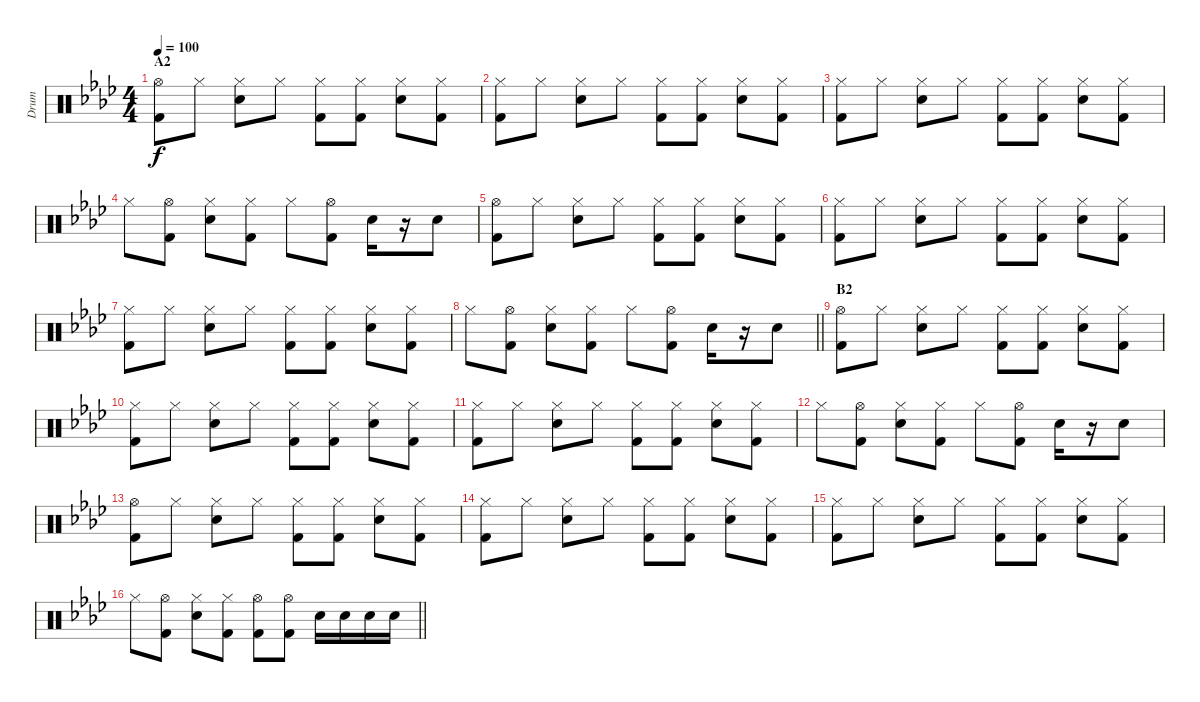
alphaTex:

\track ("Drum" "Drum") {instrument percussion}
\staff {score}
\articulation defaults
\ts (4 4)
\section ("" "A2")
\tempo 100
\clef neutral
\ks ab
("Hi-Hat (open)" "Kick (hit) 2").8{dy f} "Hi-Hat (closed)".8 ("Hi-Hat (closed)" "Snare (hit) 2").8 "Hi-Hat (closed)".8 ("Hi-Hat (closed)" "Kick (hit) 2").8 ("Hi-Hat (closed)" "Kick (hit) 2").8 ("Hi-Hat (closed)" "Snare (hit) 2").8 ("Hi-Hat (closed)" "Kick (hit) 2").8 |
("Hi-Hat (closed)" "Kick (hit) 2").8 "Hi-Hat (closed)".8 ("Hi-Hat (closed)" "Snare (hit) 2").8 "Hi-Hat (closed)".8 ("Hi-Hat (closed)" "Kick (hit) 2").8 ("Hi-Hat (closed)" "Kick (hit) 2").8 ("Hi-Hat (closed)" "Snare (hit) 2").8 ("Hi-Hat (closed)" "Kick (hit) 2").8 |
("Hi-Hat (closed)" "Kick (hit) 2").8 "Hi-Hat (closed)".8 ("Hi-Hat (closed)" "Snare (hit) 2").8 "Hi-Hat (closed)".8 ("Hi-Hat (closed)" "Kick (hit) 2").8 ("Hi-Hat (closed)" "Kick (hit) 2").8 ("Hi-Hat (closed)" "Snare (hit) 2").8 ("Hi-Hat (closed)" "Kick (hit) 2").8 |
"Hi-Hat (closed)".8 ("Hi-Hat (open)" "Kick (hit) 2").8 ("Hi-Hat (closed)" "Snare (hit) 2").8 ("Hi-Hat (closed)" "Kick (hit) 2").8 "Hi-Hat (closed)".8 ("Hi-Hat (open)" "Kick (hit) 2").8 "Snare (hit) 2".16 r.16 "Snare (hit) 2".8 |
("Hi-Hat (open)" "Kick (hit) 2").8 "Hi-Hat (closed)".8 ("Hi-Hat (closed)" "Snare (hit) 2").8 "Hi-Hat (closed)".8 ("Hi-Hat (closed)" "Kick (hit) 2").8 ("Hi-Hat (closed)" "Kick (hit) 2").8 ("Hi-Hat (closed)" "Snare (hit) 2").8 ("Hi-Hat (closed)" "Kick (hit) 2").8 |
("Hi-Hat (closed)" "Kick (hit) 2").8 "Hi-Hat (closed)".8 ("Hi-Hat (closed)" "Snare (hit) 2").8 "Hi-Hat (closed)".8 ("Hi-Hat (closed)" "Kick (hit) 2").8 ("Hi-Hat (closed)" "Kick (hit) 2").8 ("Hi-Hat (closed)" "Snare (hit) 2").8 ("Hi-Hat (closed)" "Kick (hit) 2").8 |
("Hi-Hat (closed)" "Kick (hit) 2").8 "Hi-Hat (closed)".8 ("Hi-Hat (closed)" "Snare (hit) 2").8 "Hi-Hat (closed)".8 ("Hi-Hat (closed)" "Kick (hit) 2").8 ("Hi-Hat (closed)" "Kick (hit) 2").8 ("Hi-Hat (closed)" "Snare (hit) 2").8 ("Hi-Hat (closed)" "Kick (hit) 2").8 |
\barLineRight lightlight "Hi-Hat (closed)".8
("Hi-Hat (open)" "Kick (hit) 2").8 ("Hi-Hat (closed)" "Snare (hit) 2").8 ("Hi-Hat (closed)" "Kick (hit) 2").8 "Hi-Hat (closed)".8 ("Hi-Hat (open)" "Kick (hit) 2").8 "Snare (hit) 2".16 r.16 "Snare (hit) 2".8 |
\section ("" "B2")
("Hi-Hat (open)" "Kick (hit) 2").8 "Hi-Hat (closed)".8 ("Hi-Hat (closed)" "Snare (hit) 2").8 "Hi-Hat (closed)".8 ("Hi-Hat (closed)" "Kick (hit) 2").8 ("Hi-Hat (closed)" "Kick (hit) 2").8 ("Hi-Hat (closed)" "Snare (hit) 2").8 ("Hi-Hat (closed)" "Kick (hit) 2").8 |
("Hi-Hat (closed)" "Kick (hit) 2").8 "Hi-Hat (closed)".8 ("Hi-Hat (closed)" "Snare (hit) 2").8 "Hi-Hat (closed)".8 ("Hi-Hat (closed)" "Kick (hit) 2").8 ("Hi-Hat (closed)" "Kick (hit) 2").8 ("Hi-Hat (closed)" "Snare (hit) 2").8 ("Hi-Hat (closed)" "Kick (hit) 2").8 |
("Hi-Hat (closed)" "Kick (hit) 2").8 "Hi-Hat (closed)".8 ("Hi-Hat (closed)" "Snare (hit) 2").8 "Hi-Hat (closed)".8 ("Hi-Hat (closed)" "Kick (hit) 2").8 ("Hi-Hat (closed)" "Kick (hit) 2").8 ("Hi-Hat (closed)" "Snare (hit) 2").8 ("Hi-Hat (closed)" "Kick (hit) 2").8 |
"Hi-Hat (closed)".8 ("Hi-Hat (open)" "Kick (hit) 2").8 ("Hi-Hat (closed)" "Snare (hit) 2").8 ("Hi-Hat (closed)" "Kick (hit) 2").8 "Hi-Hat (closed)".8 ("Hi-Hat (open)" "Kick (hit) 2").8 "Snare (hit) 2".16 r.16 "Snare (hit) 2".8 |
("Hi-Hat (open)" "Kick (hit) 2").8 "Hi-Hat (closed)".8 ("Hi-Hat (closed)" "Snare (hit) 2").8 "Hi-Hat (closed)".8 ("Hi-Hat (closed)" "Kick (hit) 2").8 ("Hi-Hat (closed)" "Kick (hit) 2").8 ("Hi-Hat (closed)" "Snare (hit) 2").8 ("Hi-Hat (closed)" "Kick (hit) 2").8 |
("Hi-Hat (closed)" "Kick (hit) 2").8 "Hi-Hat (closed)".8 ("Hi-Hat (closed)" "Snare (hit) 2").8 "Hi-Hat (closed)".8 ("Hi-Hat (closed)" "Kick (hit) 2").8 ("Hi-Hat (closed)" "Kick (hit) 2").8 ("Hi-Hat (closed)" "Snare (hit) 2").8 ("Hi-Hat (closed)" "Kick (hit) 2").8 |
("Hi-Hat (closed)" "Kick (hit) 2").8 "Hi-Hat (closed)".8 ("Hi-Hat (closed)" "Snare (hit) 2").8 "Hi-Hat (closed)".8 ("Hi-Hat (closed)" "Kick (hit) 2").8 ("Hi-Hat (closed)" "Kick (hit) 2").8 ("Hi-Hat (closed)" "Snare (hit) 2").8 ("Hi-Hat (closed)" "Kick (hit) 2").8 |
\barLineRight lightlight "Hi-Hat (closed)".8
("Hi-Hat (open)" "Kick (hit) 2").8 ("Hi-Hat (closed)" "Snare (hit) 2").8 ("Hi-Hat (closed)" "Kick (hit) 2").8 ("Hi-Hat (open)" "Kick (hit) 2").8 ("Hi-Hat (open)" "Kick (hit) 2").8 "Snare (hit) 2".16 "Snare (hit) 2".16 "Snare (hit) 2".16 "Snare (hit) 2".16
